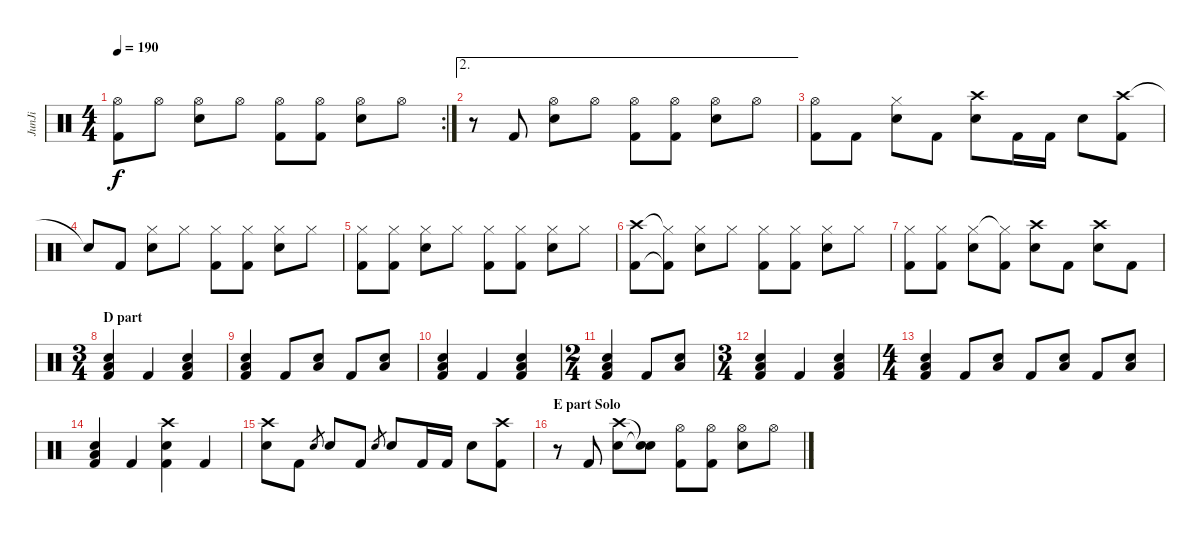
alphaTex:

\track ("JunJi" "JunJi") {instrument percussion}
\staff {score}
\articulation defaults
\rc 2
\ts (4 4)
\tempo 190
\clef neutral
\ks c
("Hi-Hat (open)" "Kick (hit) 2").8{dy f} "Hi-Hat (open)".8 ("Hi-Hat (open)" "Snare (hit) 2").8 "Hi-Hat (open)".8 ("Hi-Hat (open)" "Kick (hit) 2").8 ("Hi-Hat (open)" "Kick (hit) 2").8 ("Hi-Hat (open)" "Snare (hit) 2").8 "Hi-Hat (open)".8 |
\ae 2
r.8 "Kick (hit) 2".8 ("Hi-Hat (open)" "Snare (hit) 2").8 "Hi-Hat (open)".8 ("Hi-Hat (open)" "Kick (hit) 2").8 ("Hi-Hat (open)" "Kick (hit) 2").8 ("Hi-Hat (open)" "Snare (hit) 2").8 "Hi-Hat (open)".8 |
("Hi-Hat (open)" "Kick (hit) 2").8 "Kick (hit) 2".8 ("Hi-Hat (closed)" "Snare (hit) 2").8 "Kick (hit) 2".8 ("Crash high (hit)" "Snare (hit) 2").8 "Kick (hit) 2".16 "Kick (hit) 2".16 "Snare (hit) 2".8 ("Crash high (hit)" "Kick (hit) 2").8 |
"Snare (hit)"{t}.8 "Kick (hit) 2".8 ("Hi-Hat (closed)" "Snare (hit) 2").8 "Hi-Hat (closed)".8 ("Hi-Hat (closed)" "Kick (hit) 2").8 ("Hi-Hat (closed)" "Kick (hit) 2").8 ("Hi-Hat (closed)" "Snare (hit) 2").8 "Hi-Hat (closed)".8 |
("Hi-Hat (closed)" "Kick (hit) 2").8 ("Hi-Hat (closed)" "Kick (hit) 2").8 ("Hi-Hat (closed)" "Snare (hit) 2").8 "Hi-Hat (closed)".8 ("Hi-Hat (closed)" "Kick (hit) 2").8 ("Hi-Hat (closed)" "Kick (hit) 2").8 ("Hi-Hat (closed)" "Snare (hit) 2").8 "Hi-Hat (closed)".8 |
("Crash high (hit)" "Kick (hit) 2").8 ("Hi-Hat (closed)"{t} "Kick (hit) 2"{t}).8 ("Hi-Hat (closed)" "Snare (hit) 2").8 "Hi-Hat (closed)".8 ("Hi-Hat (closed)" "Kick (hit) 2").8 ("Hi-Hat (closed)" "Kick (hit) 2").8 ("Hi-Hat (closed)" "Snare (hit) 2").8 "Hi-Hat (closed)".8 |
("Hi-Hat (closed)" "Kick (hit) 2").8 ("Hi-Hat (closed)" "Kick (hit) 2").8 ("Hi-Hat (closed)" "Snare (hit) 2").8 ("Hi-Hat (closed)"{t} "Kick (hit) 2").8 ("Crash high (hit)" "Snare (hit) 2").8 "Kick (hit) 2".8 ("Crash high (hit)" "Snare (hit) 2").8 "Kick (hit) 2".8 |
\ts (3 4)
\section ("" "D part")
("Snare (hit) 2" "Low Tom (hit)" "Kick (hit) 2").4 "Kick (hit) 2".4 ("Snare (hit) 2" "Low Tom (hit)" "Kick (hit) 2").4 |
("Low Tom (hit)" "Snare (hit) 2" "Kick (hit) 2").4 "Kick (hit) 2".8 ("Snare (hit) 2" "Low Tom (hit)").8 "Kick (hit) 2".8 ("Snare (hit) 2" "Low Tom (hit)").8 |
("Snare (hit) 2" "Low Tom (hit)" "Kick (hit) 2").4 "Kick (hit) 2".4 ("Snare (hit) 2" "Low Tom (hit)" "Kick (hit) 2").4 |
\ts (2 4)
("Low Tom (hit)" "Snare (hit) 2" "Kick (hit) 2").4 "Kick (hit) 2".8 ("Snare (hit) 2" "Low Tom (hit)").8 |
\ts (3 4)
("Snare (hit) 2" "Low Tom (hit)" "Kick (hit) 2").4 "Kick (hit) 2".4 ("Snare (hit) 2" "Low Tom (hit)" "Kick (hit) 2").4 |
\ts (4 4)
("Snare (hit) 2" "Low Tom (hit)" "Kick (hit) 2").4 "Kick (hit) 2".8 ("Snare (hit) 2" "Low Tom (hit)").8 "Kick (hit) 2".8 ("Snare (hit) 2" "Low Tom (hit)").8 "Kick (hit) 2".8 ("Snare (hit) 2" "Low Tom (hit)").8 |
("Snare (hit) 2" "Low Tom (hit)" "Kick (hit) 2").4 "Kick (hit) 2".4 ("Crash high (hit)" "Snare (hit) 2" "Kick (hit) 2").4 "Kick (hit) 2".4 |
("Crash high (hit)" "Snare (hit) 2").8 "Kick (hit) 2".8 "Snare (hit) 2".8{gr} "Snare (hit) 2".8 "Kick (hit) 2".8 "Snare (hit) 2".8{gr} "Snare (hit) 2".8 "Kick (hit) 2".16 "Kick (hit) 2".16 "Snare (hit) 2".8 ("Crash high (hit)" "Kick (hit) 2").8 |
\section ("" "E part Solo")
r.8 "Kick (hit) 2".8 ("Crash high (hit)" "Snare (hit) 2").8 ("Snare (hit)"{t} "Snare (hit)"{t}).8 ("Hi-Hat (open)" "Kick (hit) 2").8 ("Hi-Hat (open)" "Kick (hit) 2").8 ("Hi-Hat (open)" "Snare (hit) 2").8 "Hi-Hat (open)".8
